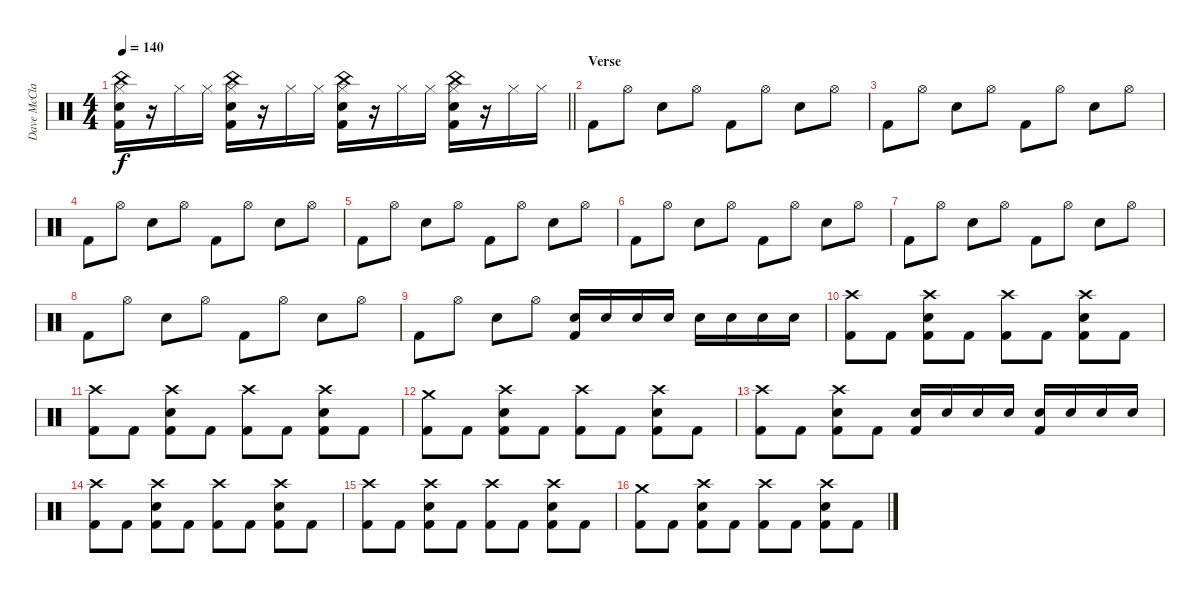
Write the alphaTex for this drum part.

\track ("Dave McClain" "Dave McCla") {solo instrument percussion}
\staff {score}
\articulation defaults
\ts (4 4)
\tempo 140
\clef neutral
\barLineRight lightlight
\ks c
("China (hit)" "Hi-Hat (closed)" "Electric Snare (hit)" "Kick (hit) 2").16{dy f} r.16 "Hi-Hat (closed)".16 "Hi-Hat (closed)".16 ("China (hit)" "Hi-Hat (closed)" "Electric Snare (hit)" "Kick (hit) 2").16 r.16 "Hi-Hat (closed)".16 "Hi-Hat (closed)".16 ("China (hit)" "Hi-Hat (closed)" "Electric Snare (hit)" "Kick (hit) 2").16 r.16 "Hi-Hat (closed)".16 "Hi-Hat (closed)".16 ("China (hit)" "Hi-Hat (closed)" "Electric Snare (hit)" "Kick (hit) 2").16 r.16 "Hi-Hat (closed)".16 "Hi-Hat (closed)".16 |
\section ("" "Verse")
"Kick (hit) 2".8 "Hi-Hat (open)".8 "Electric Snare (hit)".8 "Hi-Hat (open)".8 "Kick (hit) 2".8 "Hi-Hat (open)".8 "Electric Snare (hit)".8 "Hi-Hat (open)".8 |
"Kick (hit) 2".8 "Hi-Hat (open)".8 "Electric Snare (hit)".8 "Hi-Hat (open)".8 "Kick (hit) 2".8 "Hi-Hat (open)".8 "Electric Snare (hit)".8 "Hi-Hat (open)".8 |
"Kick (hit) 2".8 "Hi-Hat (open)".8 "Electric Snare (hit)".8 "Hi-Hat (open)".8 "Kick (hit) 2".8 "Hi-Hat (open)".8 "Electric Snare (hit)".8 "Hi-Hat (open)".8 |
"Kick (hit) 2".8 "Hi-Hat (open)".8 "Electric Snare (hit)".8 "Hi-Hat (open)".8 "Kick (hit) 2".8 "Hi-Hat (open)".8 "Electric Snare (hit)".8 "Hi-Hat (open)".8 |
"Kick (hit) 2".8 "Hi-Hat (open)".8 "Electric Snare (hit)".8 "Hi-Hat (open)".8 "Kick (hit) 2".8 "Hi-Hat (open)".8 "Electric Snare (hit)".8 "Hi-Hat (open)".8 |
"Kick (hit) 2".8 "Hi-Hat (open)".8 "Electric Snare (hit)".8 "Hi-Hat (open)".8 "Kick (hit) 2".8 "Hi-Hat (open)".8 "Electric Snare (hit)".8 "Hi-Hat (open)".8 |
"Kick (hit) 2".8 "Hi-Hat (open)".8 "Electric Snare (hit)".8 "Hi-Hat (open)".8 "Kick (hit) 2".8 "Hi-Hat (open)".8 "Electric Snare (hit)".8 "Hi-Hat (open)".8 |
"Kick (hit) 2".8 "Hi-Hat (open)".8 "Electric Snare (hit)".8 "Hi-Hat (open)".8 ("Electric Snare (hit)" "Kick (hit) 2").16 "Electric Snare (hit)".16 "Electric Snare (hit)".16 "Electric Snare (hit)".16 "Electric Snare (hit)".16 "Electric Snare (hit)".16 "Electric Snare (hit)".16 "Electric Snare (hit)".16 |
("Crash high (hit)" "Kick (hit) 2").8 "Kick (hit) 2".8 ("Crash high (hit)" "Electric Snare (hit)" "Kick (hit) 2").8 "Kick (hit) 2".8 ("Crash high (hit)" "Kick (hit) 2").8 "Kick (hit) 2".8 ("Crash high (hit)" "Electric Snare (hit)" "Kick (hit) 2").8 "Kick (hit) 2".8 |
("Crash high (hit)" "Kick (hit) 2").8 "Kick (hit) 2".8 ("Crash high (hit)" "Electric Snare (hit)" "Kick (hit) 2").8 "Kick (hit) 2".8 ("Crash high (hit)" "Kick (hit) 2").8 "Kick (hit) 2".8 ("Crash high (hit)" "Electric Snare (hit)" "Kick (hit) 2").8 "Kick (hit) 2".8 |
("Crash medium (hit)" "Kick (hit) 2").8 "Kick (hit) 2".8 ("Crash high (hit)" "Electric Snare (hit)" "Kick (hit) 2").8 "Kick (hit) 2".8 ("Crash high (hit)" "Kick (hit) 2").8 "Kick (hit) 2".8 ("Crash high (hit)" "Electric Snare (hit)" "Kick (hit) 2").8 "Kick (hit) 2".8 |
("Crash high (hit)" "Kick (hit) 2").8 "Kick (hit) 2".8 ("Crash high (hit)" "Electric Snare (hit)" "Kick (hit) 2").8 "Kick (hit) 2".8 ("Electric Snare (hit)" "Kick (hit) 2").16 "Electric Snare (hit)".16 "Electric Snare (hit)".16 "Electric Snare (hit)".16 ("Electric Snare (hit)" "Kick (hit) 2").16 "Electric Snare (hit)".16 "Electric Snare (hit)".16 "Electric Snare (hit)".16 |
("Crash high (hit)" "Kick (hit) 2").8 "Kick (hit) 2".8 ("Crash high (hit)" "Electric Snare (hit)" "Kick (hit) 2").8 "Kick (hit) 2".8 ("Crash high (hit)" "Kick (hit) 2").8 "Kick (hit) 2".8 ("Crash high (hit)" "Electric Snare (hit)" "Kick (hit) 2").8 "Kick (hit) 2".8 |
("Crash high (hit)" "Kick (hit) 2").8 "Kick (hit) 2".8 ("Crash high (hit)" "Electric Snare (hit)" "Kick (hit) 2").8 "Kick (hit) 2".8 ("Crash high (hit)" "Kick (hit) 2").8 "Kick (hit) 2".8 ("Crash high (hit)" "Electric Snare (hit)" "Kick (hit) 2").8 "Kick (hit) 2".8 |
("Crash medium (hit)" "Kick (hit) 2").8 "Kick (hit) 2".8 ("Crash high (hit)" "Electric Snare (hit)" "Kick (hit) 2").8 "Kick (hit) 2".8 ("Crash high (hit)" "Kick (hit) 2").8 "Kick (hit) 2".8 ("Crash high (hit)" "Electric Snare (hit)" "Kick (hit) 2").8 "Kick (hit) 2".8
